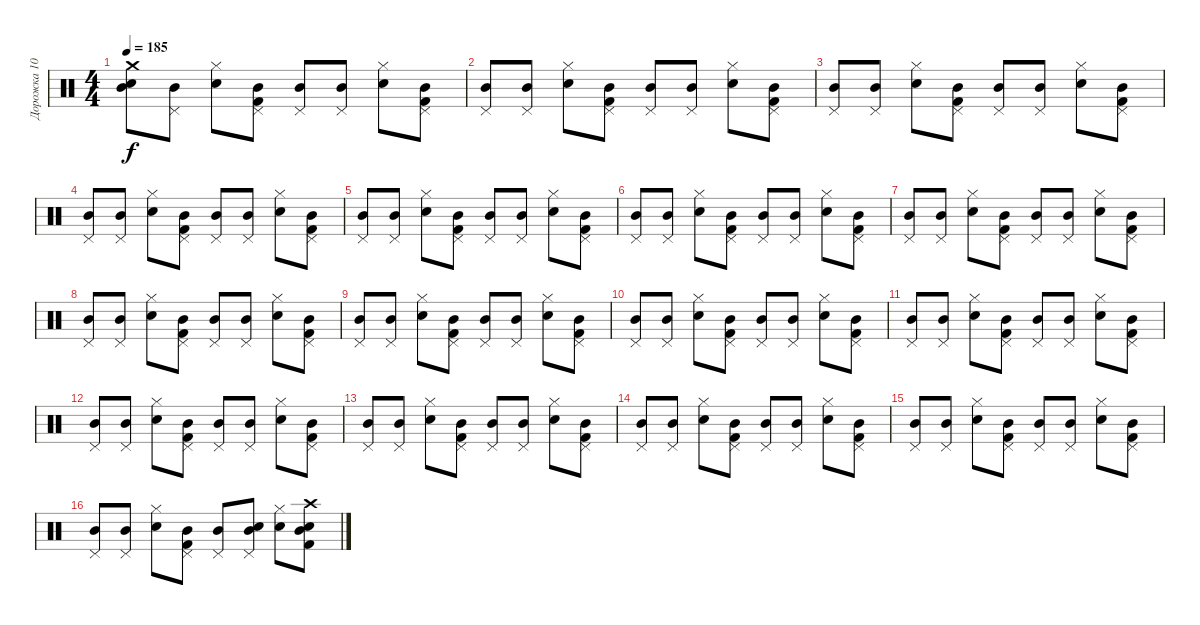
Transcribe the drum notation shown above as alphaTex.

\track ("Дорожка 10" "Дорожка 10") {instrument percussion}
\staff {score}
\articulation defaults
\ts (4 4)
\tempo 185
\clef neutral
\ks c
("Snare (hit) 2" "Mid Tom (hit)" "Crash medium (hit)").8{dy f} ("Mid Tom (hit)" "Pedal Hi-Hat (hit)").8 ("Snare (hit) 2" "Hi-Hat (closed)").8 ("Kick (hit) 2" "Mid Tom (hit)" "Pedal Hi-Hat (hit)").8 ("Mid Tom (hit)" "Pedal Hi-Hat (hit)").8 ("Mid Tom (hit)" "Pedal Hi-Hat (hit)").8 ("Snare (hit) 2" "Hi-Hat (closed)").8 ("Kick (hit) 2" "Mid Tom (hit)" "Pedal Hi-Hat (hit)").8 |
("Mid Tom (hit)" "Pedal Hi-Hat (hit)").8 ("Mid Tom (hit)" "Pedal Hi-Hat (hit)").8 ("Snare (hit) 2" "Hi-Hat (closed)").8 ("Kick (hit) 2" "Mid Tom (hit)" "Pedal Hi-Hat (hit)").8 ("Mid Tom (hit)" "Pedal Hi-Hat (hit)").8 ("Mid Tom (hit)" "Pedal Hi-Hat (hit)").8 ("Snare (hit) 2" "Hi-Hat (closed)").8 ("Kick (hit) 2" "Mid Tom (hit)" "Pedal Hi-Hat (hit)").8 |
("Mid Tom (hit)" "Pedal Hi-Hat (hit)").8 ("Mid Tom (hit)" "Pedal Hi-Hat (hit)").8 ("Snare (hit) 2" "Hi-Hat (closed)").8 ("Kick (hit) 2" "Mid Tom (hit)" "Pedal Hi-Hat (hit)").8 ("Mid Tom (hit)" "Pedal Hi-Hat (hit)").8 ("Mid Tom (hit)" "Pedal Hi-Hat (hit)").8 ("Snare (hit) 2" "Hi-Hat (closed)").8 ("Kick (hit) 2" "Mid Tom (hit)" "Pedal Hi-Hat (hit)").8 |
("Mid Tom (hit)" "Pedal Hi-Hat (hit)").8 ("Mid Tom (hit)" "Pedal Hi-Hat (hit)").8 ("Snare (hit) 2" "Hi-Hat (closed)").8 ("Kick (hit) 2" "Mid Tom (hit)" "Pedal Hi-Hat (hit)").8 ("Mid Tom (hit)" "Pedal Hi-Hat (hit)").8 ("Mid Tom (hit)" "Pedal Hi-Hat (hit)").8 ("Snare (hit) 2" "Hi-Hat (closed)").8 ("Kick (hit) 2" "Mid Tom (hit)" "Pedal Hi-Hat (hit)").8 |
("Mid Tom (hit)" "Pedal Hi-Hat (hit)").8 ("Mid Tom (hit)" "Pedal Hi-Hat (hit)").8 ("Snare (hit) 2" "Hi-Hat (closed)").8 ("Kick (hit) 2" "Mid Tom (hit)" "Pedal Hi-Hat (hit)").8 ("Mid Tom (hit)" "Pedal Hi-Hat (hit)").8 ("Mid Tom (hit)" "Pedal Hi-Hat (hit)").8 ("Snare (hit) 2" "Hi-Hat (closed)").8 ("Kick (hit) 2" "Mid Tom (hit)" "Pedal Hi-Hat (hit)").8 |
("Mid Tom (hit)" "Pedal Hi-Hat (hit)").8 ("Mid Tom (hit)" "Pedal Hi-Hat (hit)").8 ("Snare (hit) 2" "Hi-Hat (closed)").8 ("Kick (hit) 2" "Mid Tom (hit)" "Pedal Hi-Hat (hit)").8 ("Mid Tom (hit)" "Pedal Hi-Hat (hit)").8 ("Mid Tom (hit)" "Pedal Hi-Hat (hit)").8 ("Snare (hit) 2" "Hi-Hat (closed)").8 ("Kick (hit) 2" "Mid Tom (hit)" "Pedal Hi-Hat (hit)").8 |
("Mid Tom (hit)" "Pedal Hi-Hat (hit)").8 ("Mid Tom (hit)" "Pedal Hi-Hat (hit)").8 ("Snare (hit) 2" "Hi-Hat (closed)").8 ("Kick (hit) 2" "Mid Tom (hit)" "Pedal Hi-Hat (hit)").8 ("Mid Tom (hit)" "Pedal Hi-Hat (hit)").8 ("Mid Tom (hit)" "Pedal Hi-Hat (hit)").8 ("Snare (hit) 2" "Hi-Hat (closed)").8 ("Kick (hit) 2" "Mid Tom (hit)" "Pedal Hi-Hat (hit)").8 |
("Mid Tom (hit)" "Pedal Hi-Hat (hit)").8 ("Mid Tom (hit)" "Pedal Hi-Hat (hit)").8 ("Snare (hit) 2" "Hi-Hat (closed)").8 ("Kick (hit) 2" "Mid Tom (hit)" "Pedal Hi-Hat (hit)").8 ("Mid Tom (hit)" "Pedal Hi-Hat (hit)").8 ("Mid Tom (hit)" "Pedal Hi-Hat (hit)").8 ("Snare (hit) 2" "Hi-Hat (closed)").8 ("Kick (hit) 2" "Mid Tom (hit)" "Pedal Hi-Hat (hit)").8 |
("Mid Tom (hit)" "Pedal Hi-Hat (hit)").8 ("Mid Tom (hit)" "Pedal Hi-Hat (hit)").8 ("Snare (hit) 2" "Hi-Hat (closed)").8 ("Kick (hit) 2" "Mid Tom (hit)" "Pedal Hi-Hat (hit)").8 ("Mid Tom (hit)" "Pedal Hi-Hat (hit)").8 ("Mid Tom (hit)" "Pedal Hi-Hat (hit)").8 ("Snare (hit) 2" "Hi-Hat (closed)").8 ("Kick (hit) 2" "Mid Tom (hit)" "Pedal Hi-Hat (hit)").8 |
("Mid Tom (hit)" "Pedal Hi-Hat (hit)").8 ("Mid Tom (hit)" "Pedal Hi-Hat (hit)").8 ("Snare (hit) 2" "Hi-Hat (closed)").8 ("Kick (hit) 2" "Mid Tom (hit)" "Pedal Hi-Hat (hit)").8 ("Mid Tom (hit)" "Pedal Hi-Hat (hit)").8 ("Mid Tom (hit)" "Pedal Hi-Hat (hit)").8 ("Snare (hit) 2" "Hi-Hat (closed)").8 ("Kick (hit) 2" "Mid Tom (hit)" "Pedal Hi-Hat (hit)").8 |
("Mid Tom (hit)" "Pedal Hi-Hat (hit)").8 ("Mid Tom (hit)" "Pedal Hi-Hat (hit)").8 ("Snare (hit) 2" "Hi-Hat (closed)").8 ("Kick (hit) 2" "Mid Tom (hit)" "Pedal Hi-Hat (hit)").8 ("Mid Tom (hit)" "Pedal Hi-Hat (hit)").8 ("Mid Tom (hit)" "Pedal Hi-Hat (hit)").8 ("Snare (hit) 2" "Hi-Hat (closed)").8 ("Kick (hit) 2" "Mid Tom (hit)" "Pedal Hi-Hat (hit)").8 |
("Mid Tom (hit)" "Pedal Hi-Hat (hit)").8 ("Mid Tom (hit)" "Pedal Hi-Hat (hit)").8 ("Snare (hit) 2" "Hi-Hat (closed)").8 ("Kick (hit) 2" "Mid Tom (hit)" "Pedal Hi-Hat (hit)").8 ("Mid Tom (hit)" "Pedal Hi-Hat (hit)").8 ("Mid Tom (hit)" "Pedal Hi-Hat (hit)").8 ("Snare (hit) 2" "Hi-Hat (closed)").8 ("Kick (hit) 2" "Mid Tom (hit)" "Pedal Hi-Hat (hit)").8 |
("Mid Tom (hit)" "Pedal Hi-Hat (hit)").8 ("Mid Tom (hit)" "Pedal Hi-Hat (hit)").8 ("Snare (hit) 2" "Hi-Hat (closed)").8 ("Kick (hit) 2" "Mid Tom (hit)" "Pedal Hi-Hat (hit)").8 ("Mid Tom (hit)" "Pedal Hi-Hat (hit)").8 ("Mid Tom (hit)" "Pedal Hi-Hat (hit)").8 ("Snare (hit) 2" "Hi-Hat (closed)").8 ("Kick (hit) 2" "Mid Tom (hit)" "Pedal Hi-Hat (hit)").8 |
("Mid Tom (hit)" "Pedal Hi-Hat (hit)").8 ("Mid Tom (hit)" "Pedal Hi-Hat (hit)").8 ("Snare (hit) 2" "Hi-Hat (closed)").8 ("Kick (hit) 2" "Mid Tom (hit)" "Pedal Hi-Hat (hit)").8 ("Mid Tom (hit)" "Pedal Hi-Hat (hit)").8 ("Mid Tom (hit)" "Pedal Hi-Hat (hit)").8 ("Snare (hit) 2" "Hi-Hat (closed)").8 ("Kick (hit) 2" "Mid Tom (hit)" "Pedal Hi-Hat (hit)").8 |
("Mid Tom (hit)" "Pedal Hi-Hat (hit)").8 ("Mid Tom (hit)" "Pedal Hi-Hat (hit)").8 ("Snare (hit) 2" "Hi-Hat (closed)").8 ("Kick (hit) 2" "Mid Tom (hit)" "Pedal Hi-Hat (hit)").8 ("Mid Tom (hit)" "Pedal Hi-Hat (hit)").8 ("Mid Tom (hit)" "Pedal Hi-Hat (hit)").8 ("Snare (hit) 2" "Hi-Hat (closed)").8 ("Kick (hit) 2" "Mid Tom (hit)" "Pedal Hi-Hat (hit)").8 |
("Mid Tom (hit)" "Pedal Hi-Hat (hit)").8 ("Mid Tom (hit)" "Pedal Hi-Hat (hit)").8 ("Snare (hit) 2" "Hi-Hat (closed)").8 ("Kick (hit) 2" "Mid Tom (hit)" "Pedal Hi-Hat (hit)").8 ("Mid Tom (hit)" "Pedal Hi-Hat (hit)").8 ("Snare (hit) 2" "Mid Tom (hit)" "Pedal Hi-Hat (hit)").8 ("Snare (hit) 2" "Hi-Hat (closed)").8 ("Kick (hit) 2" "Snare (hit) 2" "Mid Tom (hit)" "Crash high (hit)").8
